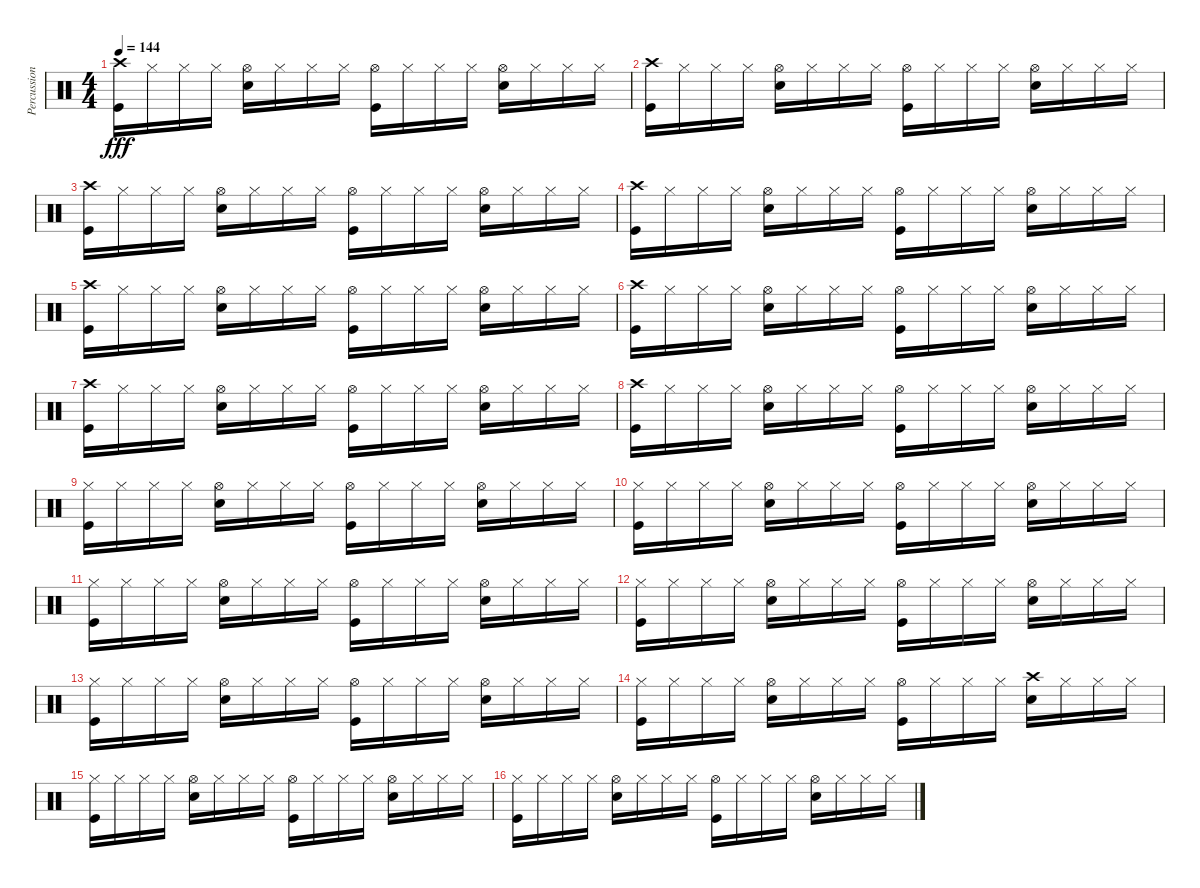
\track ("Percussions" "Percussion") {instrument percussion}
\staff {score}
\articulation defaults
\ts (4 4)
\tempo 144
\clef neutral
\ks c
("Crash high (hit)" "Kick (hit)").16{dy fff} "Hi-Hat (closed)".16 "Hi-Hat (closed)".16 "Hi-Hat (closed)".16 ("Hi-Hat (open)" "Snare (hit) 2").16 "Hi-Hat (closed)".16 "Hi-Hat (closed)".16 "Hi-Hat (closed)".16 ("Hi-Hat (open)" "Kick (hit)").16 "Hi-Hat (closed)".16 "Hi-Hat (closed)".16 "Hi-Hat (closed)".16 ("Hi-Hat (open)" "Snare (hit) 2").16 "Hi-Hat (closed)".16 "Hi-Hat (closed)".16 "Hi-Hat (closed)".16 |
("Crash high (hit)" "Kick (hit)").16 "Hi-Hat (closed)".16 "Hi-Hat (closed)".16 "Hi-Hat (closed)".16 ("Hi-Hat (open)" "Snare (hit) 2").16 "Hi-Hat (closed)".16 "Hi-Hat (closed)".16 "Hi-Hat (closed)".16 ("Hi-Hat (open)" "Kick (hit)").16 "Hi-Hat (closed)".16 "Hi-Hat (closed)".16 "Hi-Hat (closed)".16 ("Hi-Hat (open)" "Snare (hit) 2").16 "Hi-Hat (closed)".16 "Hi-Hat (closed)".16 "Hi-Hat (closed)".16 |
("Crash high (hit)" "Kick (hit)").16 "Hi-Hat (closed)".16 "Hi-Hat (closed)".16 "Hi-Hat (closed)".16 ("Hi-Hat (open)" "Snare (hit) 2").16 "Hi-Hat (closed)".16 "Hi-Hat (closed)".16 "Hi-Hat (closed)".16 ("Hi-Hat (open)" "Kick (hit)").16 "Hi-Hat (closed)".16 "Hi-Hat (closed)".16 "Hi-Hat (closed)".16 ("Hi-Hat (open)" "Snare (hit) 2").16 "Hi-Hat (closed)".16 "Hi-Hat (closed)".16 "Hi-Hat (closed)".16 |
("Crash high (hit)" "Kick (hit)").16 "Hi-Hat (closed)".16 "Hi-Hat (closed)".16 "Hi-Hat (closed)".16 ("Hi-Hat (open)" "Snare (hit) 2").16 "Hi-Hat (closed)".16 "Hi-Hat (closed)".16 "Hi-Hat (closed)".16 ("Hi-Hat (open)" "Kick (hit)").16 "Hi-Hat (closed)".16 "Hi-Hat (closed)".16 "Hi-Hat (closed)".16 ("Hi-Hat (open)" "Snare (hit) 2").16 "Hi-Hat (closed)".16 "Hi-Hat (closed)".16 "Hi-Hat (closed)".16 |
("Crash high (hit)" "Kick (hit)").16 "Hi-Hat (closed)".16 "Hi-Hat (closed)".16 "Hi-Hat (closed)".16 ("Hi-Hat (open)" "Snare (hit) 2").16 "Hi-Hat (closed)".16 "Hi-Hat (closed)".16 "Hi-Hat (closed)".16 ("Hi-Hat (open)" "Kick (hit)").16 "Hi-Hat (closed)".16 "Hi-Hat (closed)".16 "Hi-Hat (closed)".16 ("Hi-Hat (open)" "Snare (hit) 2").16 "Hi-Hat (closed)".16 "Hi-Hat (closed)".16 "Hi-Hat (closed)".16 |
("Crash high (hit)" "Kick (hit)").16 "Hi-Hat (closed)".16 "Hi-Hat (closed)".16 "Hi-Hat (closed)".16 ("Hi-Hat (open)" "Snare (hit) 2").16 "Hi-Hat (closed)".16 "Hi-Hat (closed)".16 "Hi-Hat (closed)".16 ("Hi-Hat (open)" "Kick (hit)").16 "Hi-Hat (closed)".16 "Hi-Hat (closed)".16 "Hi-Hat (closed)".16 ("Hi-Hat (open)" "Snare (hit) 2").16 "Hi-Hat (closed)".16 "Hi-Hat (closed)".16 "Hi-Hat (closed)".16 |
("Crash high (hit)" "Kick (hit)").16 "Hi-Hat (closed)".16 "Hi-Hat (closed)".16 "Hi-Hat (closed)".16 ("Hi-Hat (open)" "Snare (hit) 2").16 "Hi-Hat (closed)".16 "Hi-Hat (closed)".16 "Hi-Hat (closed)".16 ("Hi-Hat (open)" "Kick (hit)").16 "Hi-Hat (closed)".16 "Hi-Hat (closed)".16 "Hi-Hat (closed)".16 ("Hi-Hat (open)" "Snare (hit) 2").16 "Hi-Hat (closed)".16 "Hi-Hat (closed)".16 "Hi-Hat (closed)".16 |
("Crash high (hit)" "Kick (hit)").16 "Hi-Hat (closed)".16 "Hi-Hat (closed)".16 "Hi-Hat (closed)".16 ("Hi-Hat (open)" "Snare (hit) 2").16 "Hi-Hat (closed)".16 "Hi-Hat (closed)".16 "Hi-Hat (closed)".16 ("Hi-Hat (open)" "Kick (hit)").16 "Hi-Hat (closed)".16 "Hi-Hat (closed)".16 "Hi-Hat (closed)".16 ("Hi-Hat (open)" "Snare (hit) 2").16 "Hi-Hat (closed)".16 "Hi-Hat (closed)".16 "Hi-Hat (closed)".16 |
("Hi-Hat (closed)" "Kick (hit)").16 "Hi-Hat (closed)".16 "Hi-Hat (closed)".16 "Hi-Hat (closed)".16 ("Hi-Hat (open)" "Snare (hit) 2").16 "Hi-Hat (closed)".16 "Hi-Hat (closed)".16 "Hi-Hat (closed)".16 ("Hi-Hat (open)" "Kick (hit)").16 "Hi-Hat (closed)".16 "Hi-Hat (closed)".16 "Hi-Hat (closed)".16 ("Hi-Hat (open)" "Snare (hit) 2").16 "Hi-Hat (closed)".16 "Hi-Hat (closed)".16 "Hi-Hat (closed)".16 |
("Hi-Hat (closed)" "Kick (hit)").16 "Hi-Hat (closed)".16 "Hi-Hat (closed)".16 "Hi-Hat (closed)".16 ("Hi-Hat (open)" "Snare (hit) 2").16 "Hi-Hat (closed)".16 "Hi-Hat (closed)".16 "Hi-Hat (closed)".16 ("Hi-Hat (open)" "Kick (hit)").16 "Hi-Hat (closed)".16 "Hi-Hat (closed)".16 "Hi-Hat (closed)".16 ("Hi-Hat (open)" "Snare (hit) 2").16 "Hi-Hat (closed)".16 "Hi-Hat (closed)".16 "Hi-Hat (closed)".16 |
("Hi-Hat (closed)" "Kick (hit)").16 "Hi-Hat (closed)".16 "Hi-Hat (closed)".16 "Hi-Hat (closed)".16 ("Hi-Hat (open)" "Snare (hit) 2").16 "Hi-Hat (closed)".16 "Hi-Hat (closed)".16 "Hi-Hat (closed)".16 ("Hi-Hat (open)" "Kick (hit)").16 "Hi-Hat (closed)".16 "Hi-Hat (closed)".16 "Hi-Hat (closed)".16 ("Hi-Hat (open)" "Snare (hit) 2").16 "Hi-Hat (closed)".16 "Hi-Hat (closed)".16 "Hi-Hat (closed)".16 |
("Hi-Hat (closed)" "Kick (hit)").16 "Hi-Hat (closed)".16 "Hi-Hat (closed)".16 "Hi-Hat (closed)".16 ("Hi-Hat (open)" "Snare (hit) 2").16 "Hi-Hat (closed)".16 "Hi-Hat (closed)".16 "Hi-Hat (closed)".16 ("Hi-Hat (open)" "Kick (hit)").16 "Hi-Hat (closed)".16 "Hi-Hat (closed)".16 "Hi-Hat (closed)".16 ("Hi-Hat (open)" "Snare (hit) 2").16 "Hi-Hat (closed)".16 "Hi-Hat (closed)".16 "Hi-Hat (closed)".16 |
("Hi-Hat (closed)" "Kick (hit)").16 "Hi-Hat (closed)".16 "Hi-Hat (closed)".16 "Hi-Hat (closed)".16 ("Hi-Hat (open)" "Snare (hit) 2").16 "Hi-Hat (closed)".16 "Hi-Hat (closed)".16 "Hi-Hat (closed)".16 ("Hi-Hat (open)" "Kick (hit)").16 "Hi-Hat (closed)".16 "Hi-Hat (closed)".16 "Hi-Hat (closed)".16 ("Hi-Hat (open)" "Snare (hit) 2").16 "Hi-Hat (closed)".16 "Hi-Hat (closed)".16 "Hi-Hat (closed)".16 |
("Hi-Hat (closed)" "Kick (hit)").16 "Hi-Hat (closed)".16 "Hi-Hat (closed)".16 "Hi-Hat (closed)".16 ("Hi-Hat (open)" "Snare (hit) 2").16 "Hi-Hat (closed)".16 "Hi-Hat (closed)".16 "Hi-Hat (closed)".16 ("Hi-Hat (open)" "Kick (hit)").16 "Hi-Hat (closed)".16 "Hi-Hat (closed)".16 "Hi-Hat (closed)".16 ("Crash high (hit)" "Snare (hit) 2").16 "Hi-Hat (closed)".16 "Hi-Hat (closed)".16 "Hi-Hat (closed)".16 |
("Hi-Hat (closed)" "Kick (hit)").16 "Hi-Hat (closed)".16 "Hi-Hat (closed)".16 "Hi-Hat (closed)".16 ("Hi-Hat (open)" "Snare (hit) 2").16 "Hi-Hat (closed)".16 "Hi-Hat (closed)".16 "Hi-Hat (closed)".16 ("Hi-Hat (open)" "Kick (hit)").16 "Hi-Hat (closed)".16 "Hi-Hat (closed)".16 "Hi-Hat (closed)".16 ("Hi-Hat (open)" "Snare (hit) 2").16 "Hi-Hat (closed)".16 "Hi-Hat (closed)".16 "Hi-Hat (closed)".16 |
("Hi-Hat (closed)" "Kick (hit)").16 "Hi-Hat (closed)".16 "Hi-Hat (closed)".16 "Hi-Hat (closed)".16 ("Hi-Hat (open)" "Snare (hit) 2").16 "Hi-Hat (closed)".16 "Hi-Hat (closed)".16 "Hi-Hat (closed)".16 ("Hi-Hat (open)" "Kick (hit)").16 "Hi-Hat (closed)".16 "Hi-Hat (closed)".16 "Hi-Hat (closed)".16 ("Hi-Hat (open)" "Snare (hit) 2").16 "Hi-Hat (closed)".16 "Hi-Hat (closed)".16 "Hi-Hat (closed)".16
